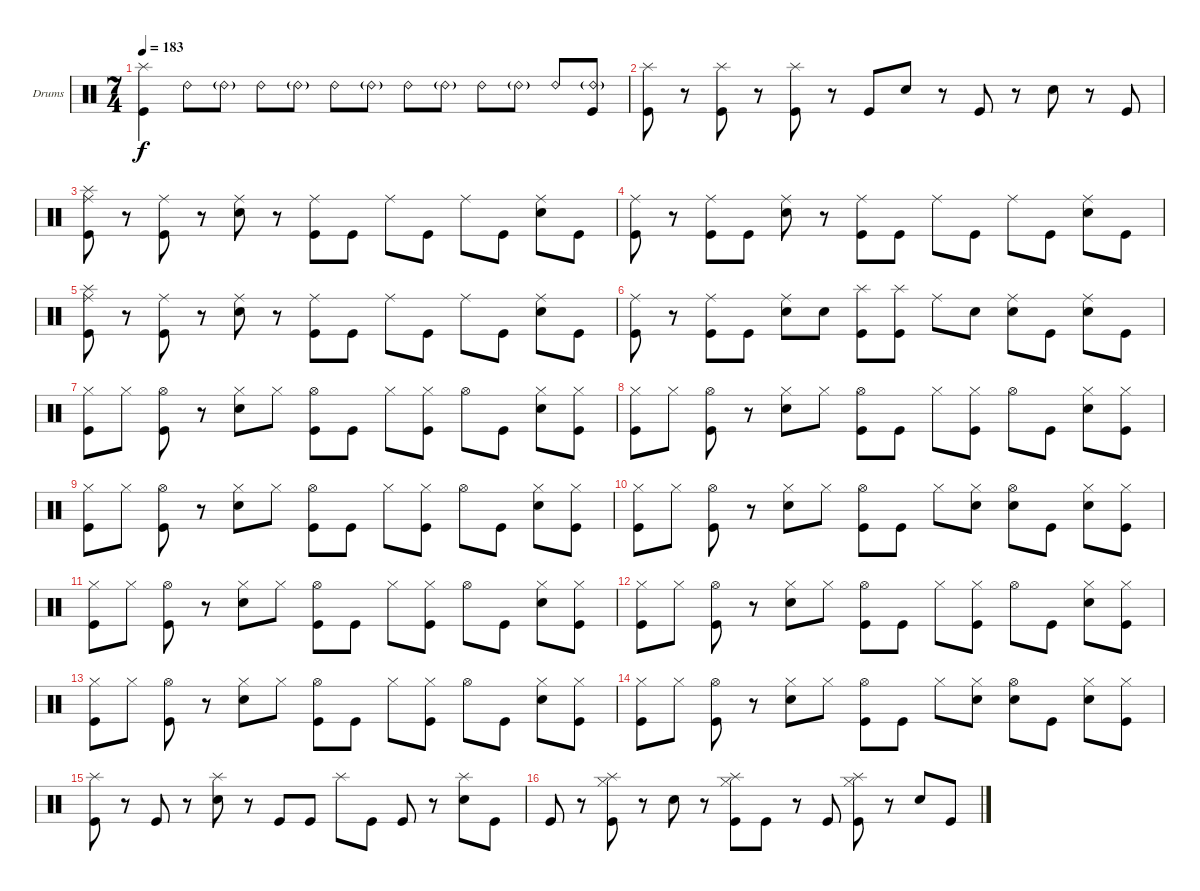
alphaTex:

\bracketExtendMode groupsimilarinstruments
\firstSystemTrackNameOrientation horizontal
\otherSystemsTrackNameOrientation horizontal
\track ("Drumkit" "Drums") {instrument percussion}
\staff {score}
\articulation defaults
\ts (7 4)
\tempo 183
\clef neutral
\ks c
("Kick (hit)" "Splash (hit)").4{dy f} "Ride (bell) 2".8 "Ride (bell) 2"{g}.8 "Ride (bell) 2".8 "Ride (bell) 2"{g}.8 "Ride (bell) 2".8 "Ride (bell) 2"{g}.8 "Ride (bell) 2".8 "Ride (bell) 2"{g}.8 "Ride (bell) 2".8 "Ride (bell) 2"{g}.8 "Ride (bell) 2".8 ("Ride (bell) 2"{g} "Kick (hit)").8 |
("Kick (hit)" "Splash (hit)").8 r.8 ("Kick (hit)" "Splash (hit)").8 r.8 ("Kick (hit)" "Splash (hit)").8 r.8 "Kick (hit)".8 "Snare (hit) 2".8 r.8 "Kick (hit)".8 r.8 "Snare (hit) 2".8 r.8 "Kick (hit)".8 |
("Kick (hit)" "Ride (middle)" "Splash (hit)").8 r.8 ("Kick (hit)" "Ride (middle)").8 r.8 ("Snare (hit) 2" "Ride (middle)").8 r.8 ("Kick (hit)" "Ride (middle)").8 "Kick (hit)".8 "Ride (middle)".8 "Kick (hit)".8 "Ride (middle)".8 "Kick (hit)".8 ("Snare (hit) 2" "Ride (middle)").8 "Kick (hit)".8 |
("Kick (hit)" "Ride (middle)").8 r.8 ("Kick (hit)" "Ride (middle)").8 "Kick (hit)".8 ("Snare (hit) 2" "Ride (middle)").8 r.8 ("Kick (hit)" "Ride (middle)").8 "Kick (hit)".8 "Ride (middle)".8 "Kick (hit)".8 "Ride (middle)".8 "Kick (hit)".8 ("Snare (hit) 2" "Ride (middle)").8 "Kick (hit)".8 |
("Kick (hit)" "Ride (middle)" "Splash (hit)").8 r.8 ("Kick (hit)" "Ride (middle)").8 r.8 ("Snare (hit) 2" "Ride (middle)").8 r.8 ("Kick (hit)" "Ride (middle)").8 "Kick (hit)".8 "Ride (middle)".8 "Kick (hit)".8 "Ride (middle)".8 "Kick (hit)".8 ("Snare (hit) 2" "Ride (middle)").8 "Kick (hit)".8 |
("Kick (hit)" "Ride (middle)").8 r.8 ("Kick (hit)" "Ride (middle)").8 "Kick (hit)".8 ("Snare (hit) 2" "Ride (middle)").8 "Snare (hit) 2".8 ("Kick (hit)" "Splash (hit)").8 ("Kick (hit)" "Splash (hit)").8 "Ride (middle)".8 "Snare (hit) 2".8 ("Snare (hit) 2" "Ride (middle)").8 "Kick (hit)".8 ("Snare (hit) 2" "Ride (middle)").8 "Kick (hit)".8 |
("Kick (hit)" "Hi-Hat (closed)").8 "Hi-Hat (closed)".8 ("Kick (hit)" "Hi-Hat (open)").8 r.8 ("Snare (hit) 2" "Hi-Hat (closed)").8 "Hi-Hat (closed)".8 ("Kick (hit)" "Hi-Hat (open)").8 "Kick (hit)".8 "Hi-Hat (closed)".8 ("Kick (hit)" "Hi-Hat (closed)").8 "Hi-Hat (open)".8 "Kick (hit)".8 ("Snare (hit) 2" "Hi-Hat (closed)").8 ("Kick (hit)" "Hi-Hat (closed)").8 |
("Kick (hit)" "Hi-Hat (closed)").8 "Hi-Hat (closed)".8 ("Kick (hit)" "Hi-Hat (open)").8 r.8 ("Snare (hit) 2" "Hi-Hat (closed)").8 "Hi-Hat (closed)".8 ("Kick (hit)" "Hi-Hat (open)").8 "Kick (hit)".8 "Hi-Hat (closed)".8 ("Kick (hit)" "Hi-Hat (closed)").8 "Hi-Hat (open)".8 "Kick (hit)".8 ("Snare (hit) 2" "Hi-Hat (closed)").8 ("Kick (hit)" "Hi-Hat (closed)").8 |
("Kick (hit)" "Hi-Hat (closed)").8 "Hi-Hat (closed)".8 ("Kick (hit)" "Hi-Hat (open)").8 r.8 ("Snare (hit) 2" "Hi-Hat (closed)").8 "Hi-Hat (closed)".8 ("Kick (hit)" "Hi-Hat (open)").8 "Kick (hit)".8 "Hi-Hat (closed)".8 ("Kick (hit)" "Hi-Hat (closed)").8 "Hi-Hat (open)".8 "Kick (hit)".8 ("Snare (hit) 2" "Hi-Hat (closed)").8 ("Kick (hit)" "Hi-Hat (closed)").8 |
("Kick (hit)" "Hi-Hat (closed)").8 "Hi-Hat (closed)".8 ("Kick (hit)" "Hi-Hat (open)").8 r.8 ("Snare (hit) 2" "Hi-Hat (closed)").8 "Hi-Hat (closed)".8 ("Kick (hit)" "Hi-Hat (open)").8 "Kick (hit)".8 "Hi-Hat (closed)".8 ("Hi-Hat (closed)" "Snare (hit) 2").8 ("Hi-Hat (open)" "Snare (hit) 2").8 "Kick (hit)".8 ("Snare (hit) 2" "Hi-Hat (closed)").8 ("Kick (hit)" "Hi-Hat (closed)").8 |
("Kick (hit)" "Hi-Hat (closed)").8 "Hi-Hat (closed)".8 ("Kick (hit)" "Hi-Hat (open)").8 r.8 ("Snare (hit) 2" "Hi-Hat (closed)").8 "Hi-Hat (closed)".8 ("Kick (hit)" "Hi-Hat (open)").8 "Kick (hit)".8 "Hi-Hat (closed)".8 ("Kick (hit)" "Hi-Hat (closed)").8 "Hi-Hat (open)".8 "Kick (hit)".8 ("Snare (hit) 2" "Hi-Hat (closed)").8 ("Kick (hit)" "Hi-Hat (closed)").8 |
("Kick (hit)" "Hi-Hat (closed)").8 "Hi-Hat (closed)".8 ("Kick (hit)" "Hi-Hat (open)").8 r.8 ("Snare (hit) 2" "Hi-Hat (closed)").8 "Hi-Hat (closed)".8 ("Kick (hit)" "Hi-Hat (open)").8 "Kick (hit)".8 "Hi-Hat (closed)".8 ("Kick (hit)" "Hi-Hat (closed)").8 "Hi-Hat (open)".8 "Kick (hit)".8 ("Snare (hit) 2" "Hi-Hat (closed)").8 ("Kick (hit)" "Hi-Hat (closed)").8 |
("Kick (hit)" "Hi-Hat (closed)").8 "Hi-Hat (closed)".8 ("Kick (hit)" "Hi-Hat (open)").8 r.8 ("Snare (hit) 2" "Hi-Hat (closed)").8 "Hi-Hat (closed)".8 ("Kick (hit)" "Hi-Hat (open)").8 "Kick (hit)".8 "Hi-Hat (closed)".8 ("Kick (hit)" "Hi-Hat (closed)").8 "Hi-Hat (open)".8 "Kick (hit)".8 ("Snare (hit) 2" "Hi-Hat (closed)").8 ("Kick (hit)" "Hi-Hat (closed)").8 |
("Kick (hit)" "Hi-Hat (closed)").8 "Hi-Hat (closed)".8 ("Kick (hit)" "Hi-Hat (open)").8 r.8 ("Snare (hit) 2" "Hi-Hat (closed)").8 "Hi-Hat (closed)".8 ("Kick (hit)" "Hi-Hat (open)").8 "Kick (hit)".8 "Hi-Hat (closed)".8 ("Hi-Hat (closed)" "Snare (hit) 2").8 ("Hi-Hat (open)" "Snare (hit) 2").8 "Kick (hit)".8 ("Snare (hit) 2" "Hi-Hat (closed)").8 ("Kick (hit)" "Hi-Hat (closed)").8 |
("Kick (hit)" "Splash (hit)").8 r.8 "Kick (hit)".8 r.8 ("Snare (hit) 2" "Splash (hit)").8 r.8 "Kick (hit)".8 "Kick (hit)".8 "Splash (hit)".8 "Kick (hit)".8 "Kick (hit)".8 r.8 ("Snare (hit) 2" "Splash (hit)").8 "Kick (hit)".8 |
"Kick (hit)".8 r.8 ("Kick (hit)" "Hi-Hat (closed)" "Splash (hit)").8 r.8 "Snare (hit) 2".8 r.8 ("Kick (hit)" "Hi-Hat (closed)" "Splash (hit)").8 "Kick (hit)".8 r.8 "Kick (hit)".8 ("Kick (hit)" "Hi-Hat (closed)" "Splash (hit)").8 r.8 "Snare (hit) 2".8 "Kick (hit)".8
